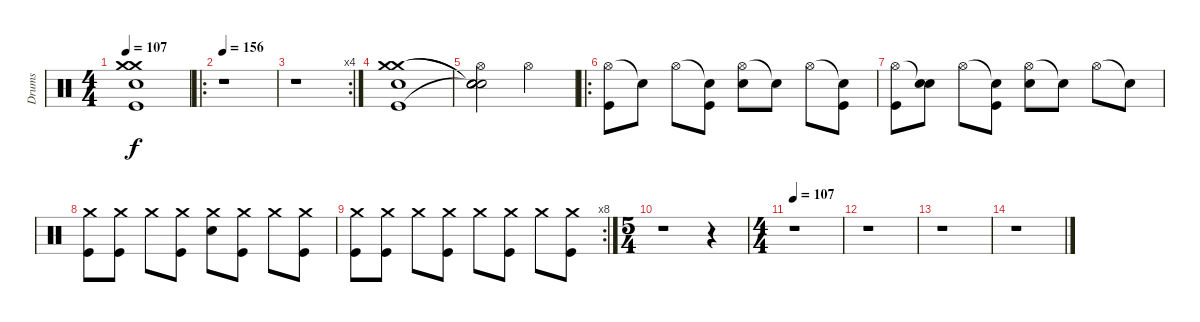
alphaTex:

\track ("Drums" "Drums") {instrument percussion}
\staff {score}
\articulation defaults
\ts (4 4)
\tempo 107
\clef neutral
\ks c
("Crash medium (hit)" "Crash medium (hit)" "Electric Snare (hit)" "Kick (hit)").1{dy f} |
\ro
\tempo 156
r.1 |
\rc 4
r.1 |
("Crash medium (hit)" "Crash medium (hit)" "Electric Snare (hit)" "Kick (hit)").1 |
("Snare (hit)"{t} "Snare (hit)"{t} "Hi-Hat (open)" "Snare (hit)"{t} "Snare (hit)").2 "Hi-Hat (open)".2 |
\ro
("Hi-Hat (open)" "Kick (hit)").8 "Snare (hit)"{t}.8 "Hi-Hat (open)".8 ("Snare (hit)"{t} "Kick (hit)").8 ("Hi-Hat (open)" "Electric Snare (hit)").8 "Snare (hit)"{t}.8 "Hi-Hat (open)".8 ("Snare (hit)"{t} "Kick (hit)").8 |
("Hi-Hat (open)" "Kick (hit)").8 ("Snare (hit)"{t} "Electric Snare (hit)").8 "Hi-Hat (open)".8 ("Snare (hit)"{t} "Kick (hit)").8 ("Hi-Hat (open)" "Electric Snare (hit)").8 "Snare (hit)"{t}.8 "Hi-Hat (open)".8 "Snare (hit)"{t}.8 |
("Crash medium (hit)" "Kick (hit)").8 ("Crash medium (hit)" "Kick (hit)").8 "Crash medium (hit)".8 ("Crash medium (hit)" "Kick (hit)").8 ("Crash medium (hit)" "Electric Snare (hit)").8 ("Crash medium (hit)" "Kick (hit)").8 "Crash medium (hit)".8 ("Crash medium (hit)" "Kick (hit)").8 |
\rc 8
("Crash medium (hit)" "Kick (hit)").8 ("Crash medium (hit)" "Kick (hit)").8 "Crash medium (hit)".8 ("Crash medium (hit)" "Kick (hit)").8 "Crash medium (hit)".8 ("Crash medium (hit)" "Kick (hit)").8 "Crash medium (hit)".8 ("Crash medium (hit)" "Kick (hit)").8 |
\ts (5 4)
r.1 r.4 |
\ts (4 4)
\tempo 107
r.1 |
r.1 |
r.1 |
r.1
